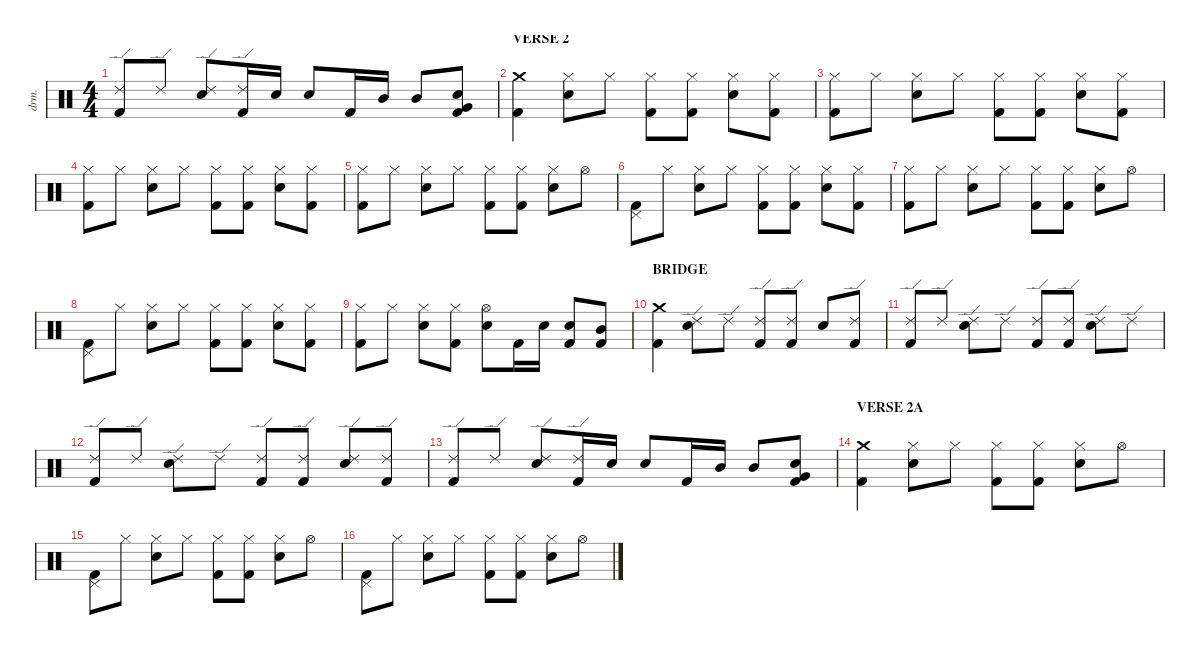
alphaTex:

\defaultSystemsLayout 4
\hideDynamics
\bracketExtendMode nobrackets
\otherSystemsTrackNameOrientation horizontal
\track ("Drums" "drm.") {defaultSystemsLayout 4 solo instrument percussion}
\staff {score}
\articulation defaults
\ts (4 4)
\tempo (128 hide)
\clef neutral
\ks c
("Ride (edge) 2" "Kick (hit) 2").8{dy f beam Up} "Ride (edge) 2".8{dy mf beam Up} ("Ride (edge) 2" "Snare (hit) 2").8{dy f beam Up} ("Ride (edge) 2" "Kick (hit) 2").16{beam Up} "Snare (hit) 2".16{dy ff beam Up} "Snare (hit) 2".8{dy fff beam Up} "Kick (hit) 2".16{dy ff beam Up} "Mid Tom (hit)".16{dy fff beam Up} "Mid Tom (hit)".8{beam Up} ("Snare (hit) 2" "Very Low Tom (hit)" "Kick (hit) 2").8{dy f beam Up} |
\section ("" "VERSE 2")
\tempo (127 hide)
("Crash medium (hit)" "Kick (hit) 2").4{beam Down} ("Hi-Hat (closed)" "Snare (hit) 2").8{dy ff beam Down} "Hi-Hat (closed)".8{dy mf beam Down} ("Hi-Hat (closed)" "Kick (hit) 2").8{dy f beam Down} ("Hi-Hat (closed)" "Kick (hit) 2").8{dy mf beam Down} ("Hi-Hat (closed)" "Snare (hit) 2").8{beam Down} ("Hi-Hat (closed)" "Kick (hit) 2").8{dy f beam Down} |
("Hi-Hat (closed)" "Kick (hit) 2").8{dy ff beam Down} "Hi-Hat (closed)".8{dy mf beam Down} ("Hi-Hat (closed)" "Snare (hit) 2").8{dy f beam Down} "Hi-Hat (closed)".8{dy mf beam Down} ("Hi-Hat (closed)" "Kick (hit) 2").8{beam Down} ("Hi-Hat (closed)" "Kick (hit) 2").8{beam Down} ("Hi-Hat (closed)" "Snare (hit) 2").8{dy f beam Down} ("Hi-Hat (closed)" "Kick (hit) 2").8{dy mf beam Down} |
("Hi-Hat (closed)" "Kick (hit) 2").8{dy f beam Down} "Hi-Hat (closed)".8{beam Down} ("Hi-Hat (closed)" "Snare (hit) 2").8{beam Down} "Hi-Hat (closed)".8{dy mf beam Down} ("Hi-Hat (closed)" "Kick (hit) 2").8{dy f beam Down} ("Hi-Hat (closed)" "Kick (hit) 2").8{dy mf beam Down} ("Hi-Hat (closed)" "Snare (hit) 2").8{dy f beam Down} ("Hi-Hat (closed)" "Kick (hit) 2").8{dy mf beam Down} |
("Hi-Hat (closed)" "Kick (hit) 2").8{dy ff beam Down} "Hi-Hat (closed)".8{dy mf beam Down} ("Hi-Hat (closed)" "Snare (hit) 2").8{dy f beam Down} "Hi-Hat (closed)".8{dy mf beam Down} ("Hi-Hat (closed)" "Kick (hit) 2").8{beam Down} ("Hi-Hat (closed)" "Kick (hit) 2").8{beam Down} ("Hi-Hat (closed)" "Snare (hit) 2").8{dy f beam Down} "Hi-Hat (open)".8{dy mf beam Down} |
("Pedal Hi-Hat (hit)" "Kick (hit) 2").8{dy f beam Down} "Hi-Hat (closed)".8{dy mf beam Down} ("Hi-Hat (closed)" "Snare (hit) 2").8{dy ff beam Down} "Hi-Hat (closed)".8{dy mf beam Down} ("Hi-Hat (closed)" "Kick (hit) 2").8{dy f beam Down} ("Hi-Hat (closed)" "Kick (hit) 2").8{dy mf beam Down} ("Hi-Hat (closed)" "Snare (hit) 2").8{beam Down} ("Hi-Hat (closed)" "Kick (hit) 2").8{dy f beam Down} |
("Hi-Hat (closed)" "Kick (hit) 2").8{dy ff beam Down} "Hi-Hat (closed)".8{dy mf beam Down} ("Hi-Hat (closed)" "Snare (hit) 2").8{dy f beam Down} "Hi-Hat (closed)".8{dy mf beam Down} ("Hi-Hat (closed)" "Kick (hit) 2").8{beam Down} ("Hi-Hat (closed)" "Kick (hit) 2").8{beam Down} ("Hi-Hat (closed)" "Snare (hit) 2").8{dy f beam Down} "Hi-Hat (open)".8{dy mf beam Down} |
("Pedal Hi-Hat (hit)" "Kick (hit) 2").8{dy f beam Down} "Hi-Hat (closed)".8{beam Down} ("Hi-Hat (closed)" "Snare (hit) 2").8{beam Down} "Hi-Hat (closed)".8{dy mf beam Down} ("Hi-Hat (closed)" "Kick (hit) 2").8{dy f beam Down} ("Hi-Hat (closed)" "Kick (hit) 2").8{dy mf beam Down} ("Hi-Hat (closed)" "Snare (hit) 2").8{dy f beam Down} ("Hi-Hat (closed)" "Kick (hit) 2").8{dy mf beam Down} |
("Hi-Hat (closed)" "Kick (hit) 2").8{dy ff beam Down} "Hi-Hat (closed)".8{dy mf beam Down} ("Hi-Hat (closed)" "Snare (hit) 2").8{dy f beam Down} ("Hi-Hat (closed)" "Kick (hit) 2").8{dy mf beam Down} ("Hi-Hat (open)" "Snare (hit) 2").8{dy f beam Down} "Kick (hit) 2".16{beam Down} "Snare (hit) 2".16{dy mf beam Down} ("Snare (hit) 2" "Kick (hit) 2").8{dy ff beam Up} ("Mid Tom (hit)" "Kick (hit) 2").8{dy fff beam Up} |
\section ("" "BRIDGE")
\tempo (128 hide)
("Crash medium (hit)" "Kick (hit) 2").4{beam Down} ("Ride (edge) 2" "Snare (hit) 2").8{dy ff beam Down} "Ride (edge) 2".8{dy mf beam Down} ("Ride (edge) 2" "Kick (hit) 2").8{dy ff beam Up} ("Ride (edge) 2" "Kick (hit) 2").8{dy f beam Up} "Snare (hit) 2".8{beam Up} ("Ride (edge) 2" "Kick (hit) 2").8{dy mf beam Up} |
("Ride (edge) 2" "Kick (hit) 2").8{dy ff beam Up} "Ride (edge) 2".8{dy mf beam Up} ("Ride (edge) 2" "Snare (hit) 2").8{dy f beam Down} "Ride (edge) 2".8{dy mf beam Down} ("Ride (edge) 2" "Kick (hit) 2").8{dy f beam Up} ("Ride (edge) 2" "Kick (hit) 2").8{dy ff beam Up} ("Ride (edge) 2" "Snare (hit) 2").8{dy mf beam Down} "Ride (edge) 2".8{dy f beam Down} |
("Ride (edge) 2" "Kick (hit) 2").8{beam Up} "Ride (edge) 2".8{beam Up} ("Ride (edge) 2" "Snare (hit) 2").8{dy ff beam Down} "Ride (edge) 2".8{dy mf beam Down} ("Ride (edge) 2" "Kick (hit) 2").8{beam Up} ("Ride (edge) 2" "Kick (hit) 2").8{dy f beam Up} ("Ride (edge) 2" "Snare (hit) 2").8{dy ff beam Up} ("Ride (edge) 2" "Kick (hit) 2").8{dy mf beam Up} |
("Ride (edge) 2" "Kick (hit) 2").8{dy ff beam Up} "Ride (edge) 2".8{dy mf beam Up} ("Ride (edge) 2" "Snare (hit) 2").8{dy f beam Up} ("Ride (edge) 2" "Kick (hit) 2").16{dy mf beam Up} "Snare (hit) 2".16{dy ff beam Up} "Snare (hit) 2".8{dy fff beam Up} "Kick (hit) 2".16{dy f beam Up} "Mid Tom (hit)".16{dy fff beam Up} "Mid Tom (hit)".8{beam Up} ("Snare (hit) 2" "Very Low Tom (hit)" "Kick (hit) 2").8{dy f beam Up} |
\section ("" "VERSE 2A")
("Crash medium (hit)" "Kick (hit) 2").4{dy ff beam Down} ("Hi-Hat (closed)" "Snare (hit) 2").8{beam Down} "Hi-Hat (closed)".8{dy mf beam Down} ("Hi-Hat (closed)" "Kick (hit) 2").8{dy f beam Down} ("Hi-Hat (closed)" "Kick (hit) 2").8{dy mf beam Down} ("Hi-Hat (closed)" "Snare (hit) 2").8{beam Down} "Hi-Hat (open)".8{dy f beam Down} |
("Pedal Hi-Hat (hit)" "Kick (hit) 2").8{beam Down} "Hi-Hat (closed)".8{dy mf beam Down} ("Hi-Hat (closed)" "Snare (hit) 2").8{dy f beam Down} "Hi-Hat (closed)".8{dy mf beam Down} ("Hi-Hat (closed)" "Kick (hit) 2").8{beam Down} ("Hi-Hat (closed)" "Kick (hit) 2").8{beam Down} ("Hi-Hat (closed)" "Snare (hit) 2").8{dy f beam Down} "Hi-Hat (open)".8{dy mf beam Down} |
("Pedal Hi-Hat (hit)" "Kick (hit) 2").8{dy f beam Down} "Hi-Hat (closed)".8{beam Down} ("Hi-Hat (closed)" "Snare (hit) 2").8{beam Down} "Hi-Hat (closed)".8{dy mf beam Down} ("Hi-Hat (closed)" "Kick (hit) 2").8{dy f beam Down} ("Hi-Hat (closed)" "Kick (hit) 2").8{dy mf beam Down} ("Hi-Hat (closed)" "Snare (hit) 2").8{dy f beam Down} "Hi-Hat (open)".8{dy mf beam Down}
